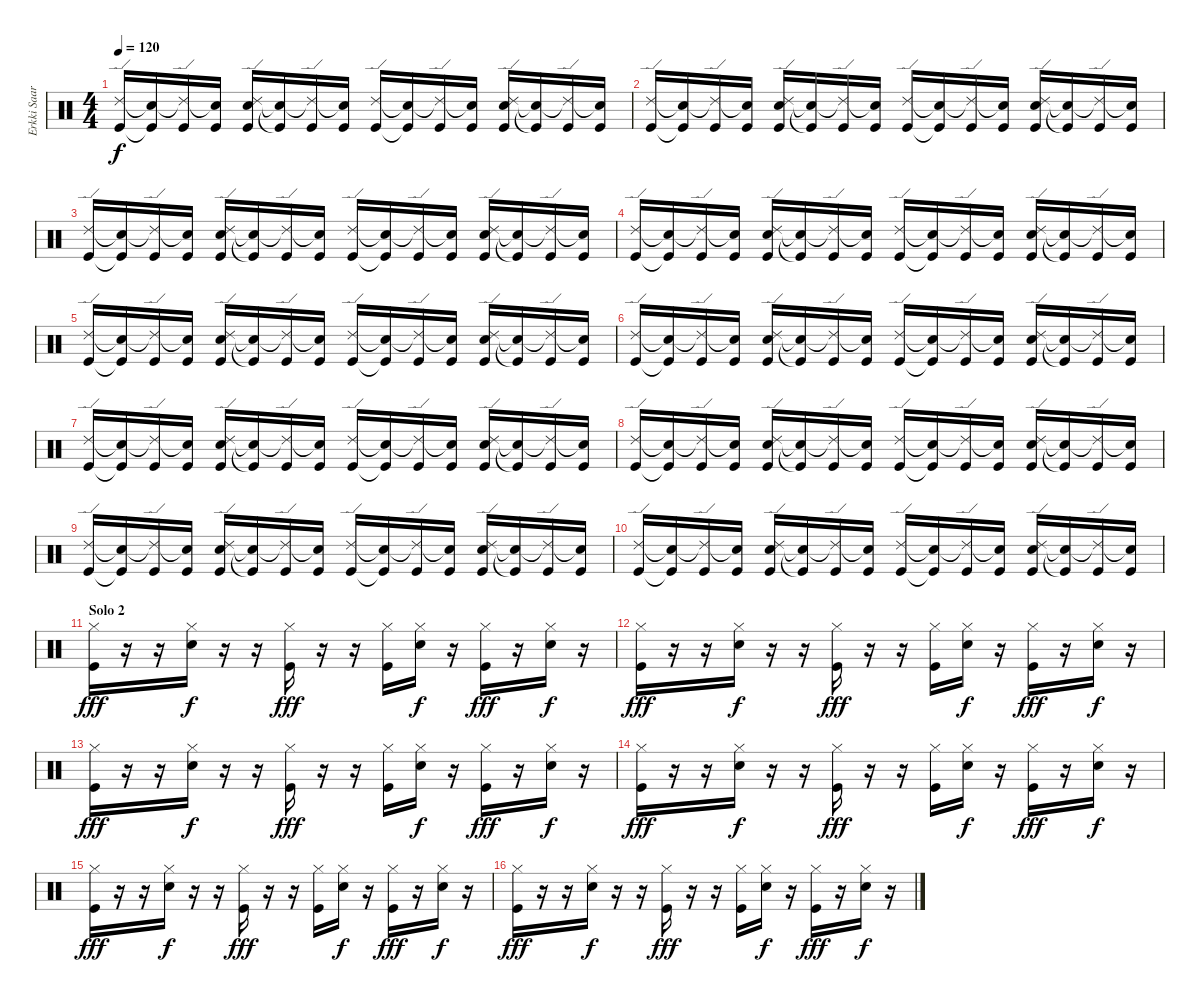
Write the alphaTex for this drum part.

\track ("Erkki Saarinen" "Erkki Saar") {instrument percussion}
\staff {score}
\articulation defaults
\ts (4 4)
\tempo 120
\clef neutral
\ks c
("Ride (edge) 2" "Kick (hit)").16{dy f} ("Snare (hit)"{t} "Kick (hit)"{t}).16 ("Ride (edge) 2"{t} "Kick (hit)").16 ("Snare (hit)"{t} "Kick (hit)").16 ("Ride (edge) 2" "Snare (hit) 2" "Kick (hit)").16 ("Snare (hit)"{t} "Kick (hit)"{t}).16 ("Ride (edge) 2"{t} "Kick (hit)").16 ("Snare (hit)"{t} "Kick (hit)").16 ("Ride (edge) 2" "Kick (hit)").16 ("Snare (hit)"{t} "Kick (hit)"{t}).16 ("Ride (edge) 2"{t} "Kick (hit)").16 ("Snare (hit)"{t} "Kick (hit)").16 ("Ride (edge) 2" "Snare (hit) 2" "Kick (hit)").16 ("Snare (hit)"{t} "Kick (hit)"{t}).16 ("Ride (edge) 2"{t} "Kick (hit)").16 ("Snare (hit)"{t} "Kick (hit)").16 |
("Ride (edge) 2" "Kick (hit)").16 ("Snare (hit)"{t} "Kick (hit)"{t}).16 ("Ride (edge) 2"{t} "Kick (hit)").16 ("Snare (hit)"{t} "Kick (hit)").16 ("Ride (edge) 2" "Snare (hit) 2" "Kick (hit)").16 ("Snare (hit)"{t} "Kick (hit)"{t}).16 ("Ride (edge) 2"{t} "Kick (hit)").16 ("Snare (hit)"{t} "Kick (hit)").16 ("Ride (edge) 2" "Kick (hit)").16 ("Snare (hit)"{t} "Kick (hit)"{t}).16 ("Ride (edge) 2"{t} "Kick (hit)").16 ("Snare (hit)"{t} "Kick (hit)").16 ("Ride (edge) 2" "Snare (hit) 2" "Kick (hit)").16 ("Snare (hit)"{t} "Kick (hit)"{t}).16 ("Ride (edge) 2"{t} "Kick (hit)").16 ("Snare (hit)"{t} "Kick (hit)").16 |
("Ride (edge) 2" "Kick (hit)").16 ("Snare (hit)"{t} "Kick (hit)"{t}).16 ("Ride (edge) 2"{t} "Kick (hit)").16 ("Snare (hit)"{t} "Kick (hit)").16 ("Ride (edge) 2" "Snare (hit) 2" "Kick (hit)").16 ("Snare (hit)"{t} "Kick (hit)"{t}).16 ("Ride (edge) 2"{t} "Kick (hit)").16 ("Snare (hit)"{t} "Kick (hit)").16 ("Ride (edge) 2" "Kick (hit)").16 ("Snare (hit)"{t} "Kick (hit)"{t}).16 ("Ride (edge) 2"{t} "Kick (hit)").16 ("Snare (hit)"{t} "Kick (hit)").16 ("Ride (edge) 2" "Snare (hit) 2" "Kick (hit)").16 ("Snare (hit)"{t} "Kick (hit)"{t}).16 ("Ride (edge) 2"{t} "Kick (hit)").16 ("Snare (hit)"{t} "Kick (hit)").16 |
("Ride (edge) 2" "Kick (hit)").16 ("Snare (hit)"{t} "Kick (hit)"{t}).16 ("Ride (edge) 2"{t} "Kick (hit)").16 ("Snare (hit)"{t} "Kick (hit)").16 ("Ride (edge) 2" "Snare (hit) 2" "Kick (hit)").16 ("Snare (hit)"{t} "Kick (hit)"{t}).16 ("Ride (edge) 2"{t} "Kick (hit)").16 ("Snare (hit)"{t} "Kick (hit)").16 ("Ride (edge) 2" "Kick (hit)").16 ("Snare (hit)"{t} "Kick (hit)"{t}).16 ("Ride (edge) 2"{t} "Kick (hit)").16 ("Snare (hit)"{t} "Kick (hit)").16 ("Ride (edge) 2" "Snare (hit) 2" "Kick (hit)").16 ("Snare (hit)"{t} "Kick (hit)"{t}).16 ("Ride (edge) 2"{t} "Kick (hit)").16 ("Snare (hit)"{t} "Kick (hit)").16 |
("Ride (edge) 2" "Kick (hit)").16 ("Snare (hit)"{t} "Kick (hit)"{t}).16 ("Ride (edge) 2"{t} "Kick (hit)").16 ("Snare (hit)"{t} "Kick (hit)").16 ("Ride (edge) 2" "Snare (hit) 2" "Kick (hit)").16 ("Snare (hit)"{t} "Kick (hit)"{t}).16 ("Ride (edge) 2"{t} "Kick (hit)").16 ("Snare (hit)"{t} "Kick (hit)").16 ("Ride (edge) 2" "Kick (hit)").16 ("Snare (hit)"{t} "Kick (hit)"{t}).16 ("Ride (edge) 2"{t} "Kick (hit)").16 ("Snare (hit)"{t} "Kick (hit)").16 ("Ride (edge) 2" "Snare (hit) 2" "Kick (hit)").16 ("Snare (hit)"{t} "Kick (hit)"{t}).16 ("Ride (edge) 2"{t} "Kick (hit)").16 ("Snare (hit)"{t} "Kick (hit)").16 |
("Ride (edge) 2" "Kick (hit)").16 ("Snare (hit)"{t} "Kick (hit)"{t}).16 ("Ride (edge) 2"{t} "Kick (hit)").16 ("Snare (hit)"{t} "Kick (hit)").16 ("Ride (edge) 2" "Snare (hit) 2" "Kick (hit)").16 ("Snare (hit)"{t} "Kick (hit)"{t}).16 ("Ride (edge) 2"{t} "Kick (hit)").16 ("Snare (hit)"{t} "Kick (hit)").16 ("Ride (edge) 2" "Kick (hit)").16 ("Snare (hit)"{t} "Kick (hit)"{t}).16 ("Ride (edge) 2"{t} "Kick (hit)").16 ("Snare (hit)"{t} "Kick (hit)").16 ("Ride (edge) 2" "Snare (hit) 2" "Kick (hit)").16 ("Snare (hit)"{t} "Kick (hit)"{t}).16 ("Ride (edge) 2"{t} "Kick (hit)").16 ("Snare (hit)"{t} "Kick (hit)").16 |
("Ride (edge) 2" "Kick (hit)").16 ("Snare (hit)"{t} "Kick (hit)"{t}).16 ("Ride (edge) 2"{t} "Kick (hit)").16 ("Snare (hit)"{t} "Kick (hit)").16 ("Ride (edge) 2" "Snare (hit) 2" "Kick (hit)").16 ("Snare (hit)"{t} "Kick (hit)"{t}).16 ("Ride (edge) 2"{t} "Kick (hit)").16 ("Snare (hit)"{t} "Kick (hit)").16 ("Ride (edge) 2" "Kick (hit)").16 ("Snare (hit)"{t} "Kick (hit)"{t}).16 ("Ride (edge) 2"{t} "Kick (hit)").16 ("Snare (hit)"{t} "Kick (hit)").16 ("Ride (edge) 2" "Snare (hit) 2" "Kick (hit)").16 ("Snare (hit)"{t} "Kick (hit)"{t}).16 ("Ride (edge) 2"{t} "Kick (hit)").16 ("Snare (hit)"{t} "Kick (hit)").16 |
("Ride (edge) 2" "Kick (hit)").16 ("Snare (hit)"{t} "Kick (hit)"{t}).16 ("Ride (edge) 2"{t} "Kick (hit)").16 ("Snare (hit)"{t} "Kick (hit)").16 ("Ride (edge) 2" "Snare (hit) 2" "Kick (hit)").16 ("Snare (hit)"{t} "Kick (hit)"{t}).16 ("Ride (edge) 2"{t} "Kick (hit)").16 ("Snare (hit)"{t} "Kick (hit)").16 ("Ride (edge) 2" "Kick (hit)").16 ("Snare (hit)"{t} "Kick (hit)"{t}).16 ("Ride (edge) 2"{t} "Kick (hit)").16 ("Snare (hit)"{t} "Kick (hit)").16 ("Ride (edge) 2" "Snare (hit) 2" "Kick (hit)").16 ("Snare (hit)"{t} "Kick (hit)"{t}).16 ("Ride (edge) 2"{t} "Kick (hit)").16 ("Snare (hit)"{t} "Kick (hit)").16 |
("Ride (edge) 2" "Kick (hit)").16 ("Snare (hit)"{t} "Kick (hit)"{t}).16 ("Ride (edge) 2"{t} "Kick (hit)").16 ("Snare (hit)"{t} "Kick (hit)").16 ("Ride (edge) 2" "Snare (hit) 2" "Kick (hit)").16 ("Snare (hit)"{t} "Kick (hit)"{t}).16 ("Ride (edge) 2"{t} "Kick (hit)").16 ("Snare (hit)"{t} "Kick (hit)").16 ("Ride (edge) 2" "Kick (hit)").16 ("Snare (hit)"{t} "Kick (hit)"{t}).16 ("Ride (edge) 2"{t} "Kick (hit)").16 ("Snare (hit)"{t} "Kick (hit)").16 ("Ride (edge) 2" "Snare (hit) 2" "Kick (hit)").16 ("Snare (hit)"{t} "Kick (hit)"{t}).16 ("Ride (edge) 2"{t} "Kick (hit)").16 ("Snare (hit)"{t} "Kick (hit)").16 |
("Ride (edge) 2" "Kick (hit)").16 ("Snare (hit)"{t} "Kick (hit)"{t}).16 ("Ride (edge) 2"{t} "Kick (hit)").16 ("Snare (hit)"{t} "Kick (hit)").16 ("Ride (edge) 2" "Snare (hit) 2" "Kick (hit)").16 ("Snare (hit)"{t} "Kick (hit)"{t}).16 ("Ride (edge) 2"{t} "Kick (hit)").16 ("Snare (hit)"{t} "Kick (hit)").16 ("Ride (edge) 2" "Kick (hit)").16 ("Snare (hit)"{t} "Kick (hit)"{t}).16 ("Ride (edge) 2"{t} "Kick (hit)").16 ("Snare (hit)"{t} "Kick (hit)").16 ("Ride (edge) 2" "Snare (hit) 2" "Kick (hit)").16 ("Snare (hit)"{t} "Kick (hit)"{t}).16 ("Ride (edge) 2"{t} "Kick (hit)").16 ("Snare (hit)"{t} "Kick (hit)").16 |
\section ("" "Solo 2")
("Hi-Hat (closed)" "Kick (hit)").16{dy fff} r.16 r.16 ("Hi-Hat (closed)" "Snare (hit) 2").16{dy f} r.16 r.16 ("Hi-Hat (closed)" "Kick (hit)").16{dy fff} r.16 r.16 ("Hi-Hat (closed)" "Kick (hit)").16 ("Hi-Hat (closed)" "Snare (hit) 2").16{dy f} r.16 ("Hi-Hat (closed)" "Kick (hit)").16{dy fff} r.16 ("Hi-Hat (closed)" "Snare (hit) 2").16{dy f} r.16 |
("Hi-Hat (closed)" "Kick (hit)").16{dy fff} r.16 r.16 ("Hi-Hat (closed)" "Snare (hit) 2").16{dy f} r.16 r.16 ("Hi-Hat (closed)" "Kick (hit)").16{dy fff} r.16 r.16 ("Hi-Hat (closed)" "Kick (hit)").16 ("Hi-Hat (closed)" "Snare (hit) 2").16{dy f} r.16 ("Hi-Hat (closed)" "Kick (hit)").16{dy fff} r.16 ("Hi-Hat (closed)" "Snare (hit) 2").16{dy f} r.16 |
("Hi-Hat (closed)" "Kick (hit)").16{dy fff} r.16 r.16 ("Hi-Hat (closed)" "Snare (hit) 2").16{dy f} r.16 r.16 ("Hi-Hat (closed)" "Kick (hit)").16{dy fff} r.16 r.16 ("Hi-Hat (closed)" "Kick (hit)").16 ("Hi-Hat (closed)" "Snare (hit) 2").16{dy f} r.16 ("Hi-Hat (closed)" "Kick (hit)").16{dy fff} r.16 ("Hi-Hat (closed)" "Snare (hit) 2").16{dy f} r.16 |
("Hi-Hat (closed)" "Kick (hit)").16{dy fff} r.16 r.16 ("Hi-Hat (closed)" "Snare (hit) 2").16{dy f} r.16 r.16 ("Hi-Hat (closed)" "Kick (hit)").16{dy fff} r.16 r.16 ("Hi-Hat (closed)" "Kick (hit)").16 ("Hi-Hat (closed)" "Snare (hit) 2").16{dy f} r.16 ("Hi-Hat (closed)" "Kick (hit)").16{dy fff} r.16 ("Hi-Hat (closed)" "Snare (hit) 2").16{dy f} r.16 |
("Hi-Hat (closed)" "Kick (hit)").16{dy fff} r.16 r.16 ("Hi-Hat (closed)" "Snare (hit) 2").16{dy f} r.16 r.16 ("Hi-Hat (closed)" "Kick (hit)").16{dy fff} r.16 r.16 ("Hi-Hat (closed)" "Kick (hit)").16 ("Hi-Hat (closed)" "Snare (hit) 2").16{dy f} r.16 ("Hi-Hat (closed)" "Kick (hit)").16{dy fff} r.16 ("Hi-Hat (closed)" "Snare (hit) 2").16{dy f} r.16 |
("Hi-Hat (closed)" "Kick (hit)").16{dy fff} r.16 r.16 ("Hi-Hat (closed)" "Snare (hit) 2").16{dy f} r.16 r.16 ("Hi-Hat (closed)" "Kick (hit)").16{dy fff} r.16 r.16 ("Hi-Hat (closed)" "Kick (hit)").16 ("Hi-Hat (closed)" "Snare (hit) 2").16{dy f} r.16 ("Hi-Hat (closed)" "Kick (hit)").16{dy fff} r.16 ("Hi-Hat (closed)" "Snare (hit) 2").16{dy f} r.16
